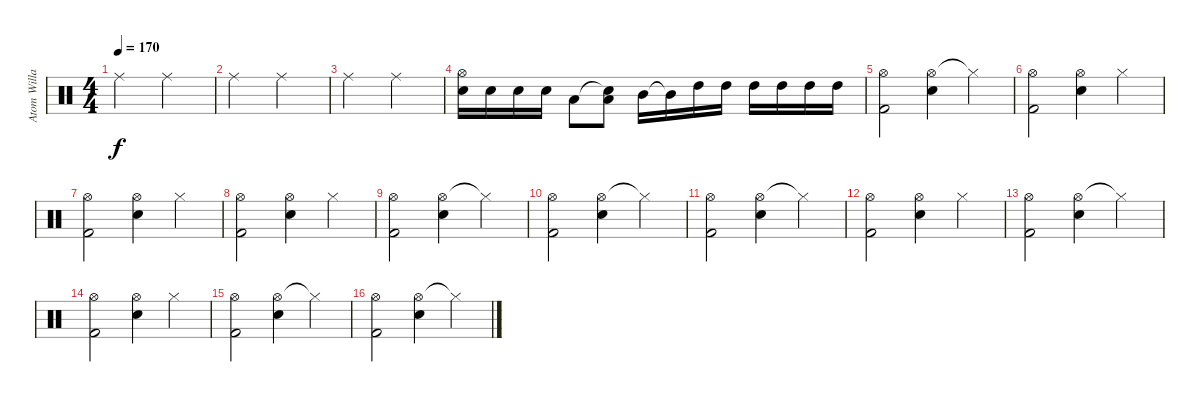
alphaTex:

\track ("Atom Willard" "Atom Willa") {instrument percussion}
\staff {score}
\articulation defaults
\ts (4 4)
\tempo 170
\clef neutral
\ks c "Ride (middle)".2{dy f} "Ride (middle)".2
|
"Ride (middle)".2 "Ride (middle)".2 |
"Ride (middle)".2 "Ride (middle)".2 |
("Hi-Hat (open)" "Electric Snare (hit)").16 "Electric Snare (hit)".16 "Electric Snare (hit)".16 "Electric Snare (hit)".16 "Low Tom (hit)".8 ("Snare (hit)"{t} "Low Tom (hit)").8 "Mid Tom (hit)".16 "Mid Tom (hit)"{t}.16 "High Tom (hit)".16 "High Tom (hit)".16 "High Tom (hit)".16 "High Tom (hit)".16 "High Tom (hit)".16 "High Tom (hit)".16 |
("Hi-Hat (open)" "Kick (hit) 2").2 ("Hi-Hat (open)" "Electric Snare (hit)").4 "Hi-Hat (closed)"{t}.4 |
("Hi-Hat (open)" "Kick (hit) 2").2 ("Hi-Hat (open)" "Electric Snare (hit)").4 "Hi-Hat (closed)".4 |
("Hi-Hat (open)" "Kick (hit) 2").2 ("Hi-Hat (open)" "Electric Snare (hit)").4 "Hi-Hat (closed)".4 |
("Hi-Hat (open)" "Kick (hit) 2").2 ("Hi-Hat (open)" "Electric Snare (hit)").4 "Hi-Hat (closed)".4 |
("Hi-Hat (open)" "Kick (hit) 2").2 ("Hi-Hat (open)" "Electric Snare (hit)").4 "Hi-Hat (closed)"{t}.4 |
("Hi-Hat (open)" "Kick (hit) 2").2 ("Hi-Hat (open)" "Electric Snare (hit)").4 "Hi-Hat (closed)"{t}.4 |
("Hi-Hat (open)" "Kick (hit) 2").2 ("Hi-Hat (open)" "Electric Snare (hit)").4 "Hi-Hat (closed)"{t}.4 |
("Hi-Hat (open)" "Kick (hit) 2").2 ("Hi-Hat (open)" "Electric Snare (hit)").4 "Hi-Hat (closed)".4 |
("Hi-Hat (open)" "Kick (hit) 2").2 ("Hi-Hat (open)" "Electric Snare (hit)").4 "Hi-Hat (closed)"{t}.4 |
("Hi-Hat (open)" "Kick (hit) 2").2 ("Hi-Hat (open)" "Electric Snare (hit)").4 "Hi-Hat (closed)".4 |
("Hi-Hat (open)" "Kick (hit) 2").2 ("Hi-Hat (open)" "Electric Snare (hit)").4 "Hi-Hat (closed)"{t}.4 |
("Hi-Hat (open)" "Kick (hit) 2").2 ("Hi-Hat (open)" "Electric Snare (hit)").4 "Hi-Hat (closed)"{t}.4
